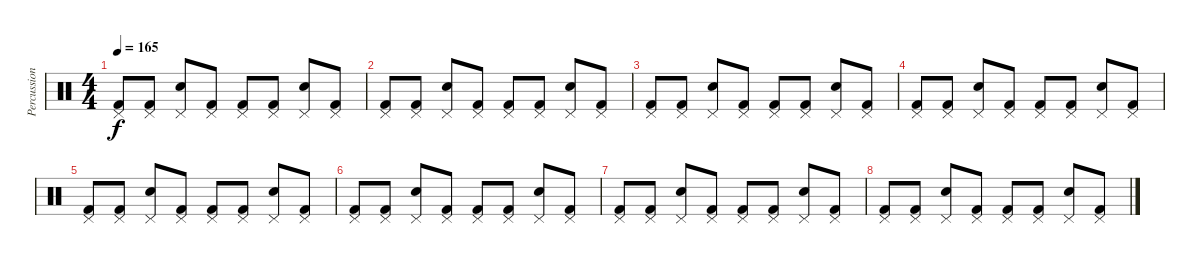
\track ("Percussion" "Percussion") {instrument percussion}
\staff {score}
\articulation defaults
\ts (4 4)
\tempo 165
\clef neutral
\ks c
("Pedal Hi-Hat (hit)" "Kick (hit) 2").8{dy f} ("Pedal Hi-Hat (hit)" "Kick (hit) 2").8 ("Pedal Hi-Hat (hit)" "Snare (hit) 2").8 ("Pedal Hi-Hat (hit)" "Kick (hit) 2").8 ("Pedal Hi-Hat (hit)" "Kick (hit) 2").8 ("Pedal Hi-Hat (hit)" "Kick (hit) 2").8 ("Pedal Hi-Hat (hit)" "Snare (hit) 2").8 ("Pedal Hi-Hat (hit)" "Kick (hit) 2").8 |
("Pedal Hi-Hat (hit)" "Kick (hit) 2").8 ("Pedal Hi-Hat (hit)" "Kick (hit) 2").8 ("Pedal Hi-Hat (hit)" "Snare (hit) 2").8 ("Pedal Hi-Hat (hit)" "Kick (hit) 2").8 ("Pedal Hi-Hat (hit)" "Kick (hit) 2").8 ("Pedal Hi-Hat (hit)" "Kick (hit) 2").8 ("Pedal Hi-Hat (hit)" "Snare (hit) 2").8 ("Pedal Hi-Hat (hit)" "Kick (hit) 2").8 |
("Pedal Hi-Hat (hit)" "Kick (hit) 2").8 ("Pedal Hi-Hat (hit)" "Kick (hit) 2").8 ("Pedal Hi-Hat (hit)" "Snare (hit) 2").8 ("Pedal Hi-Hat (hit)" "Kick (hit) 2").8 ("Pedal Hi-Hat (hit)" "Kick (hit) 2").8 ("Pedal Hi-Hat (hit)" "Kick (hit) 2").8 ("Pedal Hi-Hat (hit)" "Snare (hit) 2").8 ("Pedal Hi-Hat (hit)" "Kick (hit) 2").8 |
("Pedal Hi-Hat (hit)" "Kick (hit) 2").8 ("Pedal Hi-Hat (hit)" "Kick (hit) 2").8 ("Pedal Hi-Hat (hit)" "Snare (hit) 2").8 ("Pedal Hi-Hat (hit)" "Kick (hit) 2").8 ("Pedal Hi-Hat (hit)" "Kick (hit) 2").8 ("Pedal Hi-Hat (hit)" "Kick (hit) 2").8 ("Pedal Hi-Hat (hit)" "Snare (hit) 2").8 ("Pedal Hi-Hat (hit)" "Kick (hit) 2").8 |
("Pedal Hi-Hat (hit)" "Kick (hit) 2").8 ("Pedal Hi-Hat (hit)" "Kick (hit) 2").8 ("Pedal Hi-Hat (hit)" "Snare (hit) 2").8 ("Pedal Hi-Hat (hit)" "Kick (hit) 2").8 ("Pedal Hi-Hat (hit)" "Kick (hit) 2").8 ("Pedal Hi-Hat (hit)" "Kick (hit) 2").8 ("Pedal Hi-Hat (hit)" "Snare (hit) 2").8 ("Pedal Hi-Hat (hit)" "Kick (hit) 2").8 |
("Pedal Hi-Hat (hit)" "Kick (hit) 2").8 ("Pedal Hi-Hat (hit)" "Kick (hit) 2").8 ("Pedal Hi-Hat (hit)" "Snare (hit) 2").8 ("Pedal Hi-Hat (hit)" "Kick (hit) 2").8 ("Pedal Hi-Hat (hit)" "Kick (hit) 2").8 ("Pedal Hi-Hat (hit)" "Kick (hit) 2").8 ("Pedal Hi-Hat (hit)" "Snare (hit) 2").8 ("Pedal Hi-Hat (hit)" "Kick (hit) 2").8 |
("Pedal Hi-Hat (hit)" "Kick (hit) 2").8 ("Pedal Hi-Hat (hit)" "Kick (hit) 2").8 ("Pedal Hi-Hat (hit)" "Snare (hit) 2").8 ("Pedal Hi-Hat (hit)" "Kick (hit) 2").8 ("Pedal Hi-Hat (hit)" "Kick (hit) 2").8 ("Pedal Hi-Hat (hit)" "Kick (hit) 2").8 ("Pedal Hi-Hat (hit)" "Snare (hit) 2").8 ("Pedal Hi-Hat (hit)" "Kick (hit) 2").8 |
("Pedal Hi-Hat (hit)" "Kick (hit) 2").8 ("Pedal Hi-Hat (hit)" "Kick (hit) 2").8 ("Pedal Hi-Hat (hit)" "Snare (hit) 2").8 ("Pedal Hi-Hat (hit)" "Kick (hit) 2").8 ("Pedal Hi-Hat (hit)" "Kick (hit) 2").8 ("Pedal Hi-Hat (hit)" "Kick (hit) 2").8 ("Pedal Hi-Hat (hit)" "Snare (hit) 2").8 ("Pedal Hi-Hat (hit)" "Kick (hit) 2").8
